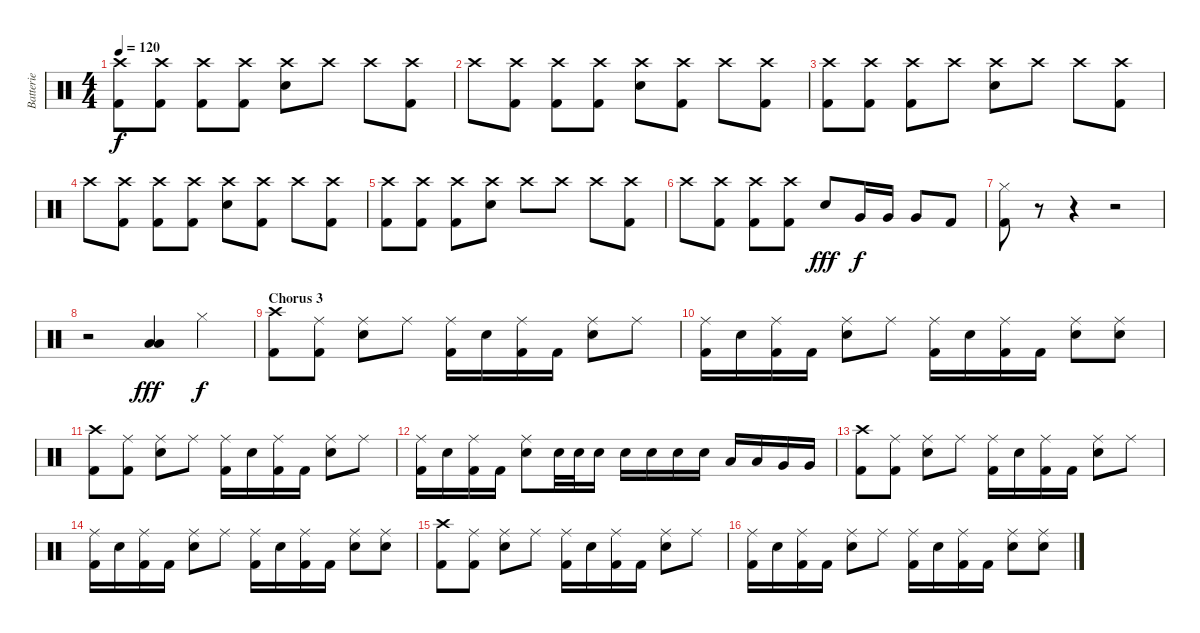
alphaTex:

\track ("Batterie" "Batterie") {instrument percussion}
\staff {score}
\articulation defaults
\ts (4 4)
\tempo 120
\clef neutral
\ks c
("Crash high (hit)" "Kick (hit) 2").8{dy f} ("Crash high (hit)" "Kick (hit) 2").8 ("Crash high (hit)" "Kick (hit) 2").8 ("Crash high (hit)" "Kick (hit) 2").8 ("Crash high (hit)" "Electric Snare (hit)").8 "Crash high (hit)".8 "Crash high (hit)".8 ("Crash high (hit)" "Kick (hit) 2").8 |
"Crash high (hit)".8 ("Crash high (hit)" "Kick (hit) 2").8 ("Crash high (hit)" "Kick (hit) 2").8 ("Crash high (hit)" "Kick (hit) 2").8 ("Crash high (hit)" "Electric Snare (hit)").8 ("Crash high (hit)" "Kick (hit) 2").8 "Crash high (hit)".8 ("Crash high (hit)" "Kick (hit) 2").8 |
("Crash high (hit)" "Kick (hit) 2").8 ("Crash high (hit)" "Kick (hit) 2").8 ("Crash high (hit)" "Kick (hit) 2").8 "Crash high (hit)".8 ("Crash high (hit)" "Electric Snare (hit)").8 "Crash high (hit)".8 "Crash high (hit)".8 ("Crash high (hit)" "Kick (hit) 2").8 |
"Crash high (hit)".8 ("Crash high (hit)" "Kick (hit) 2").8 ("Crash high (hit)" "Kick (hit) 2").8 ("Crash high (hit)" "Kick (hit) 2").8 ("Crash high (hit)" "Electric Snare (hit)").8 ("Crash high (hit)" "Kick (hit) 2").8 "Crash high (hit)".8 ("Crash high (hit)" "Kick (hit) 2").8 |
("Crash high (hit)" "Kick (hit) 2").8 ("Crash high (hit)" "Kick (hit) 2").8 ("Crash high (hit)" "Kick (hit) 2").8 ("Crash high (hit)" "Electric Snare (hit)").8 "Crash high (hit)".8 "Crash high (hit)".8 "Crash high (hit)".8 ("Crash high (hit)" "Kick (hit) 2").8 |
"Crash high (hit)".8 ("Crash high (hit)" "Kick (hit) 2").8 ("Crash high (hit)" "Kick (hit) 2").8 ("Crash high (hit)" "Kick (hit) 2").8 "Electric Snare (hit)".8{dy fff} "Very Low Tom (hit)".16{dy f} "Very Low Tom (hit)".16 "Very Low Tom (hit)".8 "Kick (hit) 2".8 |
("Hi-Hat (closed)" "Kick (hit) 2").8 r.8 r.4 r.2 |
r.2 ("Low Tom (hit)" "Low Tom (hit)").4{dy fff} "Hi-Hat (closed)".4{dy f} |
\section ("" "Chorus 3")
("Crash high (hit)" "Kick (hit) 2").8 ("Ride (middle)" "Kick (hit) 2").8 ("Ride (middle)" "Electric Snare (hit)").8 "Ride (middle)".8 ("Ride (middle)" "Kick (hit) 2").16 "Electric Snare (hit)".16 ("Ride (middle)" "Kick (hit) 2").16 "Kick (hit) 2".16 ("Ride (middle)" "Electric Snare (hit)").8 "Ride (middle)".8 |
("Ride (middle)" "Kick (hit) 2").16 "Electric Snare (hit)".16 ("Ride (middle)" "Kick (hit) 2").16 "Kick (hit) 2".16 ("Ride (middle)" "Electric Snare (hit)").8 "Ride (middle)".8 ("Ride (middle)" "Kick (hit) 2").16 "Electric Snare (hit)".16 ("Ride (middle)" "Kick (hit) 2").16 "Kick (hit) 2".16 ("Ride (middle)" "Electric Snare (hit)").8 ("Ride (middle)" "Electric Snare (hit)").8 |
("Crash high (hit)" "Kick (hit) 2").8 ("Ride (middle)" "Kick (hit) 2").8 ("Ride (middle)" "Electric Snare (hit)").8 "Ride (middle)".8 ("Ride (middle)" "Kick (hit) 2").16 "Electric Snare (hit)".16 ("Ride (middle)" "Kick (hit) 2").16 "Kick (hit) 2".16 ("Ride (middle)" "Electric Snare (hit)").8 "Ride (middle)".8 |
("Ride (middle)" "Kick (hit) 2").16 "Electric Snare (hit)".16 ("Ride (middle)" "Kick (hit) 2").16 "Kick (hit) 2".16 ("Ride (middle)" "Electric Snare (hit)").8 "Electric Snare (hit)".32 "Electric Snare (hit)".32 "Electric Snare (hit)".16 "Electric Snare (hit)".16 "Electric Snare (hit)".16 "Electric Snare (hit)".16 "Electric Snare (hit)".16 "Low Tom (hit)".16 "Low Tom (hit)".16 "Very Low Tom (hit)".16 "Very Low Tom (hit)".16 |
("Crash high (hit)" "Kick (hit) 2").8 ("Ride (middle)" "Kick (hit) 2").8 ("Ride (middle)" "Electric Snare (hit)").8 "Ride (middle)".8 ("Ride (middle)" "Kick (hit) 2").16 "Electric Snare (hit)".16 ("Ride (middle)" "Kick (hit) 2").16 "Kick (hit) 2".16 ("Ride (middle)" "Electric Snare (hit)").8 "Ride (middle)".8 |
("Ride (middle)" "Kick (hit) 2").16 "Electric Snare (hit)".16 ("Ride (middle)" "Kick (hit) 2").16 "Kick (hit) 2".16 ("Ride (middle)" "Electric Snare (hit)").8 "Ride (middle)".8 ("Ride (middle)" "Kick (hit) 2").16 "Electric Snare (hit)".16 ("Ride (middle)" "Kick (hit) 2").16 "Kick (hit) 2".16 ("Ride (middle)" "Electric Snare (hit)").8 ("Ride (middle)" "Electric Snare (hit)").8 |
("Crash high (hit)" "Kick (hit) 2").8 ("Ride (middle)" "Kick (hit) 2").8 ("Ride (middle)" "Electric Snare (hit)").8 "Ride (middle)".8 ("Ride (middle)" "Kick (hit) 2").16 "Electric Snare (hit)".16 ("Ride (middle)" "Kick (hit) 2").16 "Kick (hit) 2".16 ("Ride (middle)" "Electric Snare (hit)").8 "Ride (middle)".8 |
("Ride (middle)" "Kick (hit) 2").16 "Electric Snare (hit)".16 ("Ride (middle)" "Kick (hit) 2").16 "Kick (hit) 2".16 ("Ride (middle)" "Electric Snare (hit)").8 "Ride (middle)".8 ("Ride (middle)" "Kick (hit) 2").16 "Electric Snare (hit)".16 ("Ride (middle)" "Kick (hit) 2").16 "Kick (hit) 2".16 ("Ride (middle)" "Electric Snare (hit)").8 ("Ride (middle)" "Electric Snare (hit)").8
